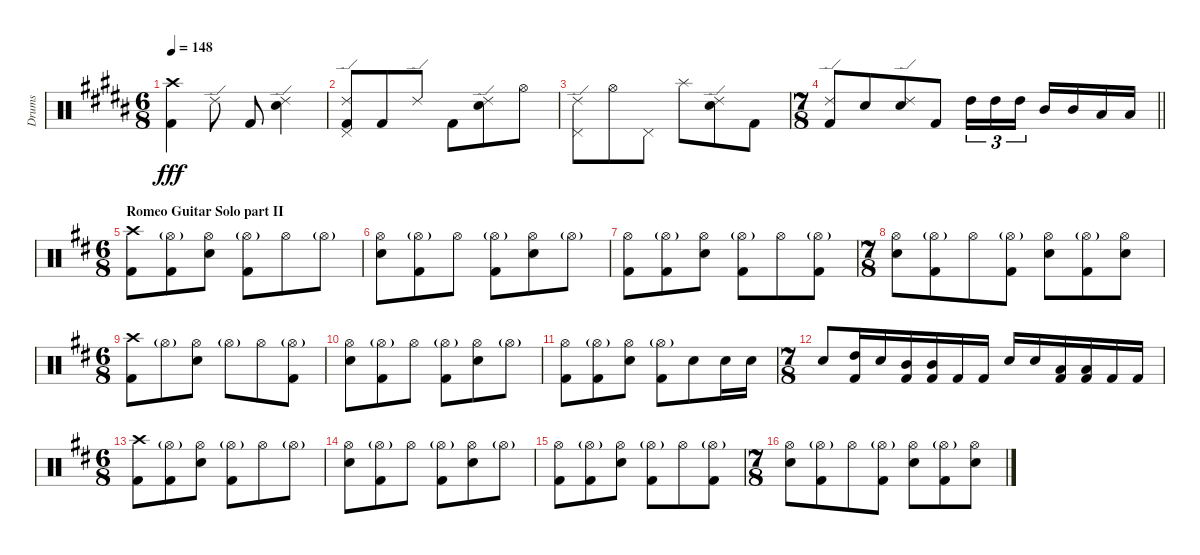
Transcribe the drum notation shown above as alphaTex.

\track ("Drums" "Drums") {instrument percussion}
\staff {score}
\articulation defaults
\ts (6 8)
\tempo 148
\clef neutral
\ks b
("Crash high (hit)" "Kick (hit) 2").4{dy fff} "Ride (edge) 2".8 "Kick (hit) 2".8 ("Ride (edge) 2" "Electric Snare (hit)").4 |
("Ride (edge) 2" "Pedal Hi-Hat (hit)" "Kick (hit) 2").8 "Kick (hit) 2".8 "Ride (edge) 2".8 "Kick (hit) 2".8 ("Ride (edge) 2" "Electric Snare (hit)").8 "Hi-Hat (open)".8 |
("Ride (edge) 2" "Pedal Hi-Hat (hit)").8 "Hi-Hat (open)".8 "Pedal Hi-Hat (hit)".8 "Splash (hit)".8 ("Ride (edge) 2" "Electric Snare (hit)").8 "Kick (hit) 2".8 |
\ts (7 8)
\barLineRight lightlight
("Ride (edge) 2" "Kick (hit) 2").8 "Electric Snare (hit)".8 ("Ride (edge) 2" "Electric Snare (hit)").8 "Kick (hit) 2".8 "High Tom (hit)".16{tu (3 2)} "High Tom (hit)".16{tu (3 2)} "High Tom (hit)".16{tu (3 2)} "Mid Tom (hit)".16 "Mid Tom (hit)".16 "Low Tom (hit)".16 "Low Tom (hit)".16 |
\ts (6 8)
\section ("" "Romeo Guitar Solo part II")
\ks d
("Crash high (hit)" "Kick (hit) 2").8 ("Hi-Hat (open)"{g} "Kick (hit) 2").8 ("Hi-Hat (open)" "Electric Snare (hit)").8 ("Hi-Hat (open)"{g} "Kick (hit) 2").8 "Hi-Hat (open)".8 "Hi-Hat (open)"{g}.8 |
("Hi-Hat (open)" "Electric Snare (hit)").8 ("Hi-Hat (open)"{g} "Kick (hit) 2").8 "Hi-Hat (open)".8 ("Hi-Hat (open)"{g} "Kick (hit) 2").8 ("Hi-Hat (open)" "Electric Snare (hit)").8 "Hi-Hat (open)"{g}.8 |
("Hi-Hat (open)" "Kick (hit) 2").8 ("Hi-Hat (open)"{g} "Kick (hit) 2").8 ("Hi-Hat (open)" "Electric Snare (hit)").8 ("Hi-Hat (open)"{g} "Kick (hit) 2").8 "Hi-Hat (open)".8 ("Hi-Hat (open)"{g} "Kick (hit) 2").8 |
\ts (7 8)
("Hi-Hat (open)" "Electric Snare (hit)").8 ("Hi-Hat (open)"{g} "Kick (hit) 2").8 "Hi-Hat (open)".8 ("Hi-Hat (open)"{g} "Kick (hit) 2").8 ("Hi-Hat (open)" "Electric Snare (hit)").8 ("Hi-Hat (open)"{g} "Kick (hit) 2").8 ("Hi-Hat (open)" "Electric Snare (hit)").8 |
\ts (6 8)
("Crash high (hit)" "Kick (hit) 2").8 "Hi-Hat (open)"{g}.8 ("Hi-Hat (open)" "Electric Snare (hit)").8 "Hi-Hat (open)"{g}.8 "Hi-Hat (open)".8 ("Hi-Hat (open)"{g} "Kick (hit) 2").8 |
("Hi-Hat (open)" "Electric Snare (hit)").8 ("Hi-Hat (open)"{g} "Kick (hit) 2").8 "Hi-Hat (open)".8 ("Hi-Hat (open)"{g} "Kick (hit) 2").8 ("Hi-Hat (open)" "Electric Snare (hit)").8 "Hi-Hat (open)"{g}.8 |
("Hi-Hat (open)" "Kick (hit) 2").8 ("Hi-Hat (open)"{g} "Kick (hit) 2").8 ("Hi-Hat (open)" "Electric Snare (hit)").8 ("Hi-Hat (open)"{g} "Kick (hit) 2").8 "Electric Snare (hit)".8 "Electric Snare (hit)".16 "Electric Snare (hit)".16 |
\ts (7 8)
"Electric Snare (hit)".8 ("High Tom (hit)" "Kick (hit) 2").16 "Electric Snare (hit)".16 ("Mid Tom (hit)" "Kick (hit) 2").16 ("Mid Tom (hit)" "Kick (hit) 2").16 "Kick (hit) 2".16 "Kick (hit) 2".16 "Electric Snare (hit)".16 "Electric Snare (hit)".16 ("Low Tom (hit)" "Kick (hit) 2").16 ("Low Tom (hit)" "Kick (hit) 2").16 "Kick (hit) 2".16 "Kick (hit) 2".16 |
\ts (6 8)
("Crash high (hit)" "Kick (hit) 2").8 ("Hi-Hat (open)"{g} "Kick (hit) 2").8 ("Hi-Hat (open)" "Electric Snare (hit)").8 ("Hi-Hat (open)"{g} "Kick (hit) 2").8 "Hi-Hat (open)".8 "Hi-Hat (open)"{g}.8 |
("Hi-Hat (open)" "Electric Snare (hit)").8 ("Hi-Hat (open)"{g} "Kick (hit) 2").8 "Hi-Hat (open)".8 ("Hi-Hat (open)"{g} "Kick (hit) 2").8 ("Hi-Hat (open)" "Electric Snare (hit)").8 "Hi-Hat (open)"{g}.8 |
("Hi-Hat (open)" "Kick (hit) 2").8 ("Hi-Hat (open)"{g} "Kick (hit) 2").8 ("Hi-Hat (open)" "Electric Snare (hit)").8 ("Hi-Hat (open)"{g} "Kick (hit) 2").8 "Hi-Hat (open)".8 ("Hi-Hat (open)"{g} "Kick (hit) 2").8 |
\ts (7 8)
("Hi-Hat (open)" "Electric Snare (hit)").8 ("Hi-Hat (open)"{g} "Kick (hit) 2").8 "Hi-Hat (open)".8 ("Hi-Hat (open)"{g} "Kick (hit) 2").8 ("Hi-Hat (open)" "Electric Snare (hit)").8 ("Hi-Hat (open)"{g} "Kick (hit) 2").8 ("Hi-Hat (open)" "Electric Snare (hit)").8
